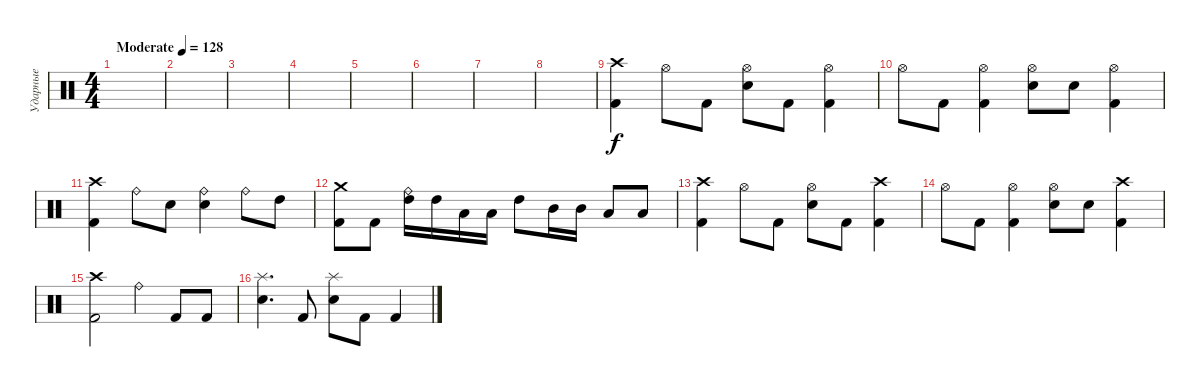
\track ("Ударные" "Ударные") {instrument percussion}
\staff {score}
\articulation defaults
\ts (4 4)
\tempo (128 "Moderate")
\clef neutral
\ks c
|
|
|
|
|
|
|
|
("Crash high (hit)" "Kick (hit) 2").4 "Hi-Hat (open)".8 "Kick (hit) 2".8 ("Hi-Hat (open)" "Snare (hit) 2").8 "Kick (hit) 2".8 ("Hi-Hat (open)" "Kick (hit) 2").4 |
"Hi-Hat (open)".8 "Kick (hit) 2".8 ("Hi-Hat (open)" "Kick (hit) 2").4 ("Hi-Hat (open)" "Snare (hit) 2").8 "Snare (hit) 2".8 ("Hi-Hat (open)" "Kick (hit) 2").4 |
("Crash high (hit)" "Kick (hit) 2").4 "Ride (bell)".8 "Snare (hit) 2".8 ("Ride (bell)" "Snare (hit) 2").4 "Ride (bell)".8 "High Tom (hit)".8 |
("Crash medium (hit)" "Kick (hit) 2").8 "Kick (hit) 2".8 ("Ride (bell)" "High Tom (hit)").16 "High Tom (hit)".16 "Low Tom (hit)".16 "Low Tom (hit)".16 "High Tom (hit)".8 "Mid Tom (hit)".16 "Mid Tom (hit)".16 "Low Tom (hit)".8 "Low Tom (hit)".8 |
("Crash high (hit)" "Kick (hit) 2").4 "Hi-Hat (open)".8 "Kick (hit) 2".8 ("Hi-Hat (open)" "Snare (hit) 2").8 "Kick (hit) 2".8 ("Crash high (hit)" "Kick (hit) 2").4 |
"Hi-Hat (open)".8 "Kick (hit) 2".8 ("Hi-Hat (open)" "Kick (hit) 2").4 ("Hi-Hat (open)" "Snare (hit) 2").8 "Snare (hit) 2".8 ("Crash high (hit)" "Kick (hit) 2").4 |
("Crash high (hit)" "Kick (hit) 2").2 "Ride (bell)".4 "Kick (hit) 2".8 "Kick (hit) 2".8 |
("Splash (hit)" "Snare (hit) 2").4{d} "Kick (hit) 2".8 ("Splash (hit)" "Snare (hit) 2").8 "Kick (hit) 2".8 "Kick (hit) 2".4
